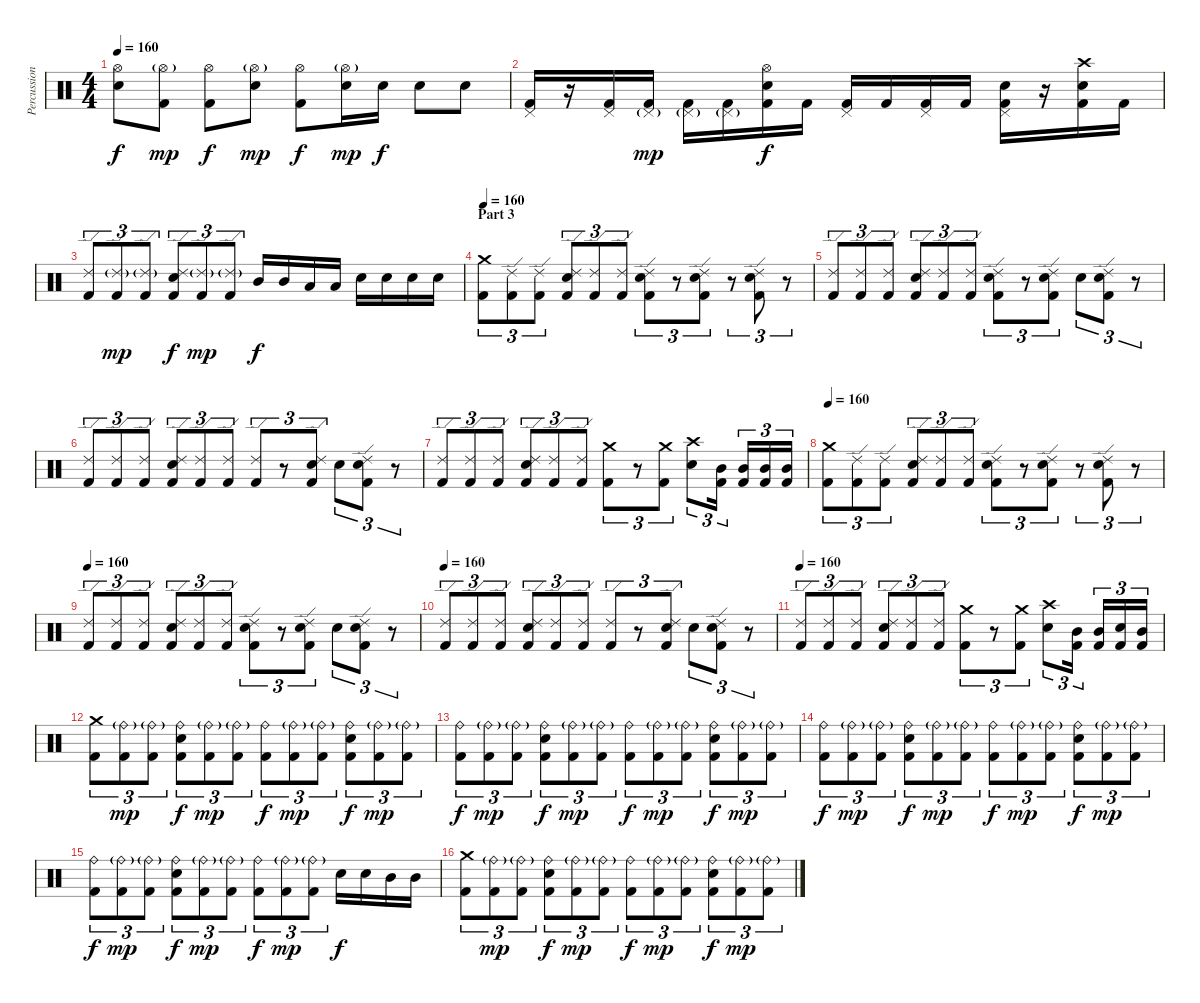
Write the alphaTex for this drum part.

\track ("Percussions" "Percussion") {instrument percussion}
\staff {score}
\articulation defaults
\ts (4 4)
\tempo 160
\clef neutral
\ks c
("Hi-Hat (open)" "Electric Snare (hit)").8{dy f} ("Hi-Hat (open)"{g} "Kick (hit) 2").8{dy mp} ("Hi-Hat (open)" "Kick (hit) 2").8{dy f} ("Hi-Hat (open)"{g} "Electric Snare (hit)").8{dy mp} ("Hi-Hat (open)" "Kick (hit) 2").8{dy f} ("Hi-Hat (open)"{g} "Electric Snare (hit)").16{dy mp} "Electric Snare (hit)".16{dy f} "Electric Snare (hit)".8 "Snare (hit) 2".8 |
("Kick (hit) 2" "Pedal Hi-Hat (hit)").16 r.16 ("Kick (hit) 2" "Pedal Hi-Hat (hit)").16 ("Kick (hit) 2" "Pedal Hi-Hat (hit)"{g}).16{dy mp} ("Kick (hit) 2" "Pedal Hi-Hat (hit)"{g}).16 ("Kick (hit) 2" "Pedal Hi-Hat (hit)"{g}).16 ("Kick (hit) 2" "Electric Snare (hit)" "Hi-Hat (open)").16{dy f} "Kick (hit) 2".16 ("Kick (hit) 2" "Pedal Hi-Hat (hit)").16 "Kick (hit) 2".16 ("Kick (hit) 2" "Pedal Hi-Hat (hit)").16 "Kick (hit) 2".16 ("Kick (hit) 2" "Electric Snare (hit)" "Pedal Hi-Hat (hit)").16 r.16 ("Kick (hit) 2" "Electric Snare (hit)" "Crash high (hit)").16 "Kick (hit) 2".16 |
("Kick (hit) 2" "Ride (edge) 2").8{tu (3 2)} ("Kick (hit) 2" "Ride (edge) 2"{g}).8{tu (3 2) dy mp} ("Kick (hit) 2" "Ride (edge) 2"{g}).8{tu (3 2)} ("Kick (hit) 2" "Electric Snare (hit)" "Ride (edge) 2").8{tu (3 2) dy f} ("Kick (hit) 2" "Ride (edge) 2"{g}).8{tu (3 2) dy mp} ("Kick (hit) 2" "Ride (edge) 2"{g}).8{tu (3 2)} "Mid Tom (hit)".16{dy f} "Mid Tom (hit)".16 "Low Tom (hit)".16 "Low Tom (hit)".16 "Electric Snare (hit)".16 "Electric Snare (hit)".16 "Snare (hit) 2".16 "Snare (hit) 2".16 |
\section ("" "Part 3")
\tempo 160
("Crash medium (hit)" "Kick (hit) 2").8{tu (3 2)} ("Ride (edge) 2" "Kick (hit) 2").8{tu (3 2)} ("Ride (edge) 2" "Kick (hit) 2").8{tu (3 2)} ("Ride (edge) 2" "Electric Snare (hit)" "Kick (hit) 2").8{tu (3 2)} ("Ride (edge) 2" "Kick (hit) 2").8{tu (3 2)} ("Ride (edge) 2" "Kick (hit) 2").8{tu (3 2)} ("Ride (edge) 2" "Electric Snare (hit)" "Kick (hit) 2").8{tu (3 2)} r.8{tu (3 2)} ("Ride (edge) 2" "Electric Snare (hit)" "Kick (hit) 2").8{tu (3 2)} r.8{tu (3 2)} ("Ride (edge) 2" "Electric Snare (hit)" "Kick (hit) 2").8{tu (3 2)} r.8{tu (3 2)} |
("Ride (edge) 2" "Kick (hit) 2").8{tu (3 2)} ("Ride (edge) 2" "Kick (hit) 2").8{tu (3 2)} ("Ride (edge) 2" "Kick (hit) 2").8{tu (3 2)} ("Ride (edge) 2" "Electric Snare (hit)" "Kick (hit) 2").8{tu (3 2)} ("Ride (edge) 2" "Kick (hit) 2").8{tu (3 2)} ("Ride (edge) 2" "Kick (hit) 2").8{tu (3 2)} ("Ride (edge) 2" "Electric Snare (hit)" "Kick (hit) 2").8{tu (3 2)} r.8{tu (3 2)} ("Ride (edge) 2" "Electric Snare (hit)" "Kick (hit) 2").8{tu (3 2)} "Electric Snare (hit)".8{tu (3 2)} ("Ride (edge) 2" "Electric Snare (hit)" "Kick (hit) 2").8{tu (3 2)} r.8{tu (3 2)} |
("Ride (edge) 2" "Kick (hit) 2").8{tu (3 2)} ("Ride (edge) 2" "Kick (hit) 2").8{tu (3 2)} ("Ride (edge) 2" "Kick (hit) 2").8{tu (3 2)} ("Ride (edge) 2" "Electric Snare (hit)" "Kick (hit) 2").8{tu (3 2)} ("Ride (edge) 2" "Kick (hit) 2").8{tu (3 2)} ("Ride (edge) 2" "Kick (hit) 2").8{tu (3 2)} ("Ride (edge) 2" "Kick (hit) 2").8{tu (3 2)} r.8{tu (3 2)} ("Ride (edge) 2" "Electric Snare (hit)" "Kick (hit) 2").8{tu (3 2)} "Electric Snare (hit)".8{tu (3 2)} ("Ride (edge) 2" "Electric Snare (hit)" "Kick (hit) 2").8{tu (3 2)} r.8{tu (3 2)} |
("Ride (edge) 2" "Kick (hit) 2").8{tu (3 2)} ("Ride (edge) 2" "Kick (hit) 2").8{tu (3 2)} ("Ride (edge) 2" "Kick (hit) 2").8{tu (3 2)} ("Ride (edge) 2" "Electric Snare (hit)" "Kick (hit) 2").8{tu (3 2)} ("Ride (edge) 2" "Kick (hit) 2").8{tu (3 2)} ("Ride (edge) 2" "Kick (hit) 2").8{tu (3 2)} ("Crash medium (hit)" "Kick (hit) 2").8{tu (3 2)} r.8{tu (3 2)} ("Crash medium (hit)" "Kick (hit) 2").8{tu (3 2)} ("Crash high (hit)" "Electric Snare (hit)").8{tu (3 2)} ("Mid Tom (hit)" "Kick (hit) 2").16{tu (3 2)} ("Mid Tom (hit)" "Kick (hit) 2").16{tu (3 2)} ("Mid Tom (hit)" "Kick (hit) 2").16{tu (3 2)} ("Mid Tom (hit)" "Kick (hit) 2").16{tu (3 2)} |
\tempo 160
("Crash medium (hit)" "Kick (hit) 2").8{tu (3 2)} ("Ride (edge) 2" "Kick (hit) 2").8{tu (3 2)} ("Ride (edge) 2" "Kick (hit) 2").8{tu (3 2)} ("Ride (edge) 2" "Electric Snare (hit)" "Kick (hit) 2").8{tu (3 2)} ("Ride (edge) 2" "Kick (hit) 2").8{tu (3 2)} ("Ride (edge) 2" "Kick (hit) 2").8{tu (3 2)} ("Ride (edge) 2" "Electric Snare (hit)" "Kick (hit) 2").8{tu (3 2)} r.8{tu (3 2)} ("Ride (edge) 2" "Electric Snare (hit)" "Kick (hit) 2").8{tu (3 2)} r.8{tu (3 2)} ("Ride (edge) 2" "Electric Snare (hit)" "Kick (hit) 2").8{tu (3 2)} r.8{tu (3 2)} |
\tempo 160
("Ride (edge) 2" "Kick (hit) 2").8{tu (3 2)} ("Ride (edge) 2" "Kick (hit) 2").8{tu (3 2)} ("Ride (edge) 2" "Kick (hit) 2").8{tu (3 2)} ("Ride (edge) 2" "Electric Snare (hit)" "Kick (hit) 2").8{tu (3 2)} ("Ride (edge) 2" "Kick (hit) 2").8{tu (3 2)} ("Ride (edge) 2" "Kick (hit) 2").8{tu (3 2)} ("Ride (edge) 2" "Electric Snare (hit)" "Kick (hit) 2").8{tu (3 2)} r.8{tu (3 2)} ("Ride (edge) 2" "Electric Snare (hit)" "Kick (hit) 2").8{tu (3 2)} "Electric Snare (hit)".8{tu (3 2)} ("Ride (edge) 2" "Electric Snare (hit)" "Kick (hit) 2").8{tu (3 2)} r.8{tu (3 2)} |
\tempo 160
("Ride (edge) 2" "Kick (hit) 2").8{tu (3 2)} ("Ride (edge) 2" "Kick (hit) 2").8{tu (3 2)} ("Ride (edge) 2" "Kick (hit) 2").8{tu (3 2)} ("Ride (edge) 2" "Electric Snare (hit)" "Kick (hit) 2").8{tu (3 2)} ("Ride (edge) 2" "Kick (hit) 2").8{tu (3 2)} ("Ride (edge) 2" "Kick (hit) 2").8{tu (3 2)} ("Ride (edge) 2" "Kick (hit) 2").8{tu (3 2)} r.8{tu (3 2)} ("Ride (edge) 2" "Electric Snare (hit)" "Kick (hit) 2").8{tu (3 2)} "Electric Snare (hit)".8{tu (3 2)} ("Ride (edge) 2" "Electric Snare (hit)" "Kick (hit) 2").8{tu (3 2)} r.8{tu (3 2)} |
\tempo 160
("Ride (edge) 2" "Kick (hit) 2").8{tu (3 2)} ("Ride (edge) 2" "Kick (hit) 2").8{tu (3 2)} ("Ride (edge) 2" "Kick (hit) 2").8{tu (3 2)} ("Ride (edge) 2" "Electric Snare (hit)" "Kick (hit) 2").8{tu (3 2)} ("Ride (edge) 2" "Kick (hit) 2").8{tu (3 2)} ("Ride (edge) 2" "Kick (hit) 2").8{tu (3 2)} ("Crash medium (hit)" "Kick (hit) 2").8{tu (3 2)} r.8{tu (3 2)} ("Crash medium (hit)" "Kick (hit) 2").8{tu (3 2)} ("Crash high (hit)" "Electric Snare (hit)").8{tu (3 2)} ("Mid Tom (hit)" "Kick (hit) 2").16{tu (3 2)} ("Mid Tom (hit)" "Kick (hit) 2").16{tu (3 2)} ("Snare (hit) 2" "Kick (hit) 2").16{tu (3 2)} ("Mid Tom (hit)" "Kick (hit) 2").16{tu (3 2)} |
("Crash medium (hit)" "Kick (hit) 2").8{tu (3 2)} ("Ride (bell)"{g} "Kick (hit) 2").8{tu (3 2) dy mp} ("Ride (bell)"{g} "Kick (hit) 2").8{tu (3 2)} ("Ride (bell)" "Electric Snare (hit)" "Kick (hit) 2").8{tu (3 2) dy f} ("Ride (bell)"{g} "Kick (hit) 2").8{tu (3 2) dy mp} ("Ride (bell)"{g} "Kick (hit) 2").8{tu (3 2)} ("Ride (bell)" "Kick (hit) 2").8{tu (3 2) dy f} ("Ride (bell)"{g} "Kick (hit) 2").8{tu (3 2) dy mp} ("Ride (bell)"{g} "Kick (hit) 2").8{tu (3 2)} ("Ride (bell)" "Electric Snare (hit)" "Kick (hit) 2").8{tu (3 2) dy f} ("Ride (bell)"{g} "Kick (hit) 2").8{tu (3 2) dy mp} ("Ride (bell)"{g} "Kick (hit) 2").8{tu (3 2)} |
("Ride (bell)" "Kick (hit) 2").8{tu (3 2) dy f} ("Ride (bell)"{g} "Kick (hit) 2").8{tu (3 2) dy mp} ("Ride (bell)"{g} "Kick (hit) 2").8{tu (3 2)} ("Ride (bell)" "Electric Snare (hit)" "Kick (hit) 2").8{tu (3 2) dy f} ("Ride (bell)"{g} "Kick (hit) 2").8{tu (3 2) dy mp} ("Ride (bell)"{g} "Kick (hit) 2").8{tu (3 2)} ("Ride (bell)" "Kick (hit) 2").8{tu (3 2) dy f} ("Ride (bell)"{g} "Kick (hit) 2").8{tu (3 2) dy mp} ("Ride (bell)"{g} "Kick (hit) 2").8{tu (3 2)} ("Ride (bell)" "Electric Snare (hit)" "Kick (hit) 2").8{tu (3 2) dy f} ("Ride (bell)"{g} "Kick (hit) 2").8{tu (3 2) dy mp} ("Ride (bell)"{g} "Kick (hit) 2").8{tu (3 2)} |
("Ride (bell)" "Kick (hit) 2").8{tu (3 2) dy f} ("Ride (bell)"{g} "Kick (hit) 2").8{tu (3 2) dy mp} ("Ride (bell)"{g} "Kick (hit) 2").8{tu (3 2)} ("Ride (bell)" "Electric Snare (hit)" "Kick (hit) 2").8{tu (3 2) dy f} ("Ride (bell)"{g} "Kick (hit) 2").8{tu (3 2) dy mp} ("Ride (bell)"{g} "Kick (hit) 2").8{tu (3 2)} ("Ride (bell)" "Kick (hit) 2").8{tu (3 2) dy f} ("Ride (bell)"{g} "Kick (hit) 2").8{tu (3 2) dy mp} ("Ride (bell)"{g} "Kick (hit) 2").8{tu (3 2)} ("Ride (bell)" "Electric Snare (hit)" "Kick (hit) 2").8{tu (3 2) dy f} ("Ride (bell)"{g} "Kick (hit) 2").8{tu (3 2) dy mp} ("Ride (bell)"{g} "Kick (hit) 2").8{tu (3 2)} |
("Ride (bell)" "Kick (hit) 2").8{tu (3 2) dy f} ("Ride (bell)"{g} "Kick (hit) 2").8{tu (3 2) dy mp} ("Ride (bell)"{g} "Kick (hit) 2").8{tu (3 2)} ("Ride (bell)" "Electric Snare (hit)" "Kick (hit) 2").8{tu (3 2) dy f} ("Ride (bell)"{g} "Kick (hit) 2").8{tu (3 2) dy mp} ("Ride (bell)"{g} "Kick (hit) 2").8{tu (3 2)} ("Ride (bell)" "Kick (hit) 2").8{tu (3 2) dy f} ("Ride (bell)"{g} "Kick (hit) 2").8{tu (3 2) dy mp} ("Ride (bell)"{g} "Kick (hit) 2").8{tu (3 2)} "Electric Snare (hit)".16{dy f} "Electric Snare (hit)".16 "Mid Tom (hit)".16 "Mid Tom (hit)".16 |
("Crash medium (hit)" "Kick (hit) 2").8{tu (3 2)} ("Ride (bell)"{g} "Kick (hit) 2").8{tu (3 2) dy mp} ("Ride (bell)"{g} "Kick (hit) 2").8{tu (3 2)} ("Ride (bell)" "Electric Snare (hit)" "Kick (hit) 2").8{tu (3 2) dy f} ("Ride (bell)"{g} "Kick (hit) 2").8{tu (3 2) dy mp} ("Ride (bell)"{g} "Kick (hit) 2").8{tu (3 2)} ("Ride (bell)" "Kick (hit) 2").8{tu (3 2) dy f} ("Ride (bell)"{g} "Kick (hit) 2").8{tu (3 2) dy mp} ("Ride (bell)"{g} "Kick (hit) 2").8{tu (3 2)} ("Ride (bell)" "Electric Snare (hit)" "Kick (hit) 2").8{tu (3 2) dy f} ("Ride (bell)"{g} "Kick (hit) 2").8{tu (3 2) dy mp} ("Ride (bell)"{g} "Kick (hit) 2").8{tu (3 2)}
